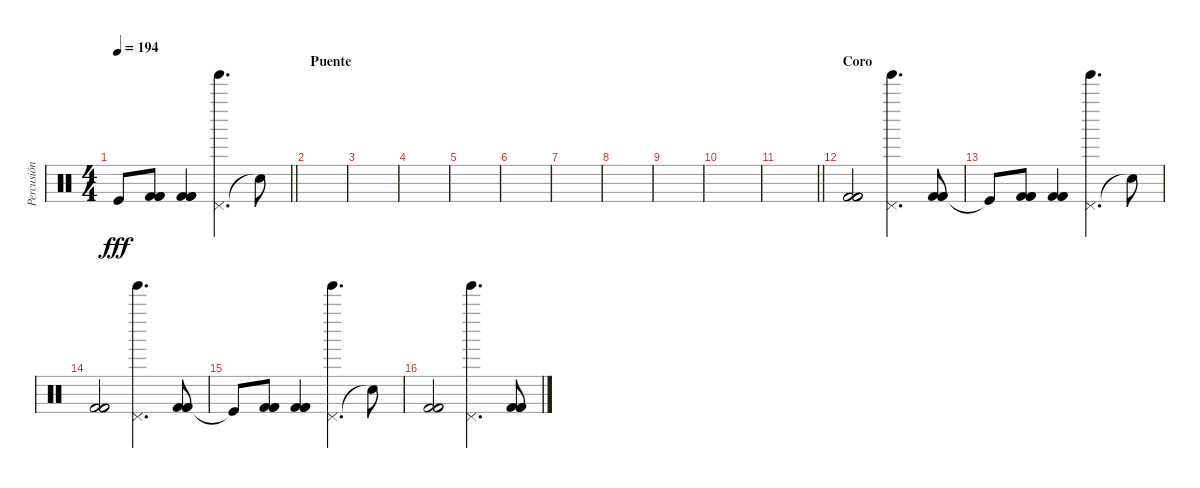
\track ("Percusión" "Percusión") {instrument percussion}
\staff {score}
\articulation defaults
\ts (4 4)
\tempo 194
\clef neutral
\barLineRight lightlight
\ks c "Kick (hit)"{t}.8{dy fff}
("Kick (hit) 2" "Kick (hit) 2" "Kick (hit) 2").8 ("Kick (hit) 2" "Kick (hit) 2" "Kick (hit) 2").4 ("Pedal Hi-Hat (hit)" "Tinkle Bell (hit)").4{d} "Snare (hit)"{t}.8 |
\section ("" "Puente")
|
|
|
|
|
|
|
|
|
\barLineRight lightlight
|
\section ("" "Coro")
("Kick (hit) 2" "Kick (hit) 2" "Kick (hit) 2").2 ("Pedal Hi-Hat (hit)" "Tinkle Bell (hit)").4{d} ("Kick (hit) 2" "Kick (hit) 2" "Kick (hit) 2").8 |
"Kick (hit)"{t}.8 ("Kick (hit) 2" "Kick (hit) 2" "Kick (hit) 2").8 ("Kick (hit) 2" "Kick (hit) 2" "Kick (hit) 2").4 ("Pedal Hi-Hat (hit)" "Tinkle Bell (hit)").4{d} "Snare (hit)"{t}.8 |
("Kick (hit) 2" "Kick (hit) 2" "Kick (hit) 2").2 ("Pedal Hi-Hat (hit)" "Tinkle Bell (hit)").4{d} ("Kick (hit) 2" "Kick (hit) 2" "Kick (hit) 2").8 |
"Kick (hit)"{t}.8 ("Kick (hit) 2" "Kick (hit) 2" "Kick (hit) 2").8 ("Kick (hit) 2" "Kick (hit) 2" "Kick (hit) 2").4 ("Pedal Hi-Hat (hit)" "Tinkle Bell (hit)").4{d} "Snare (hit)"{t}.8 |
("Kick (hit) 2" "Kick (hit) 2" "Kick (hit) 2").2 ("Pedal Hi-Hat (hit)" "Tinkle Bell (hit)").4{d} ("Kick (hit) 2" "Kick (hit) 2" "Kick (hit) 2").8
